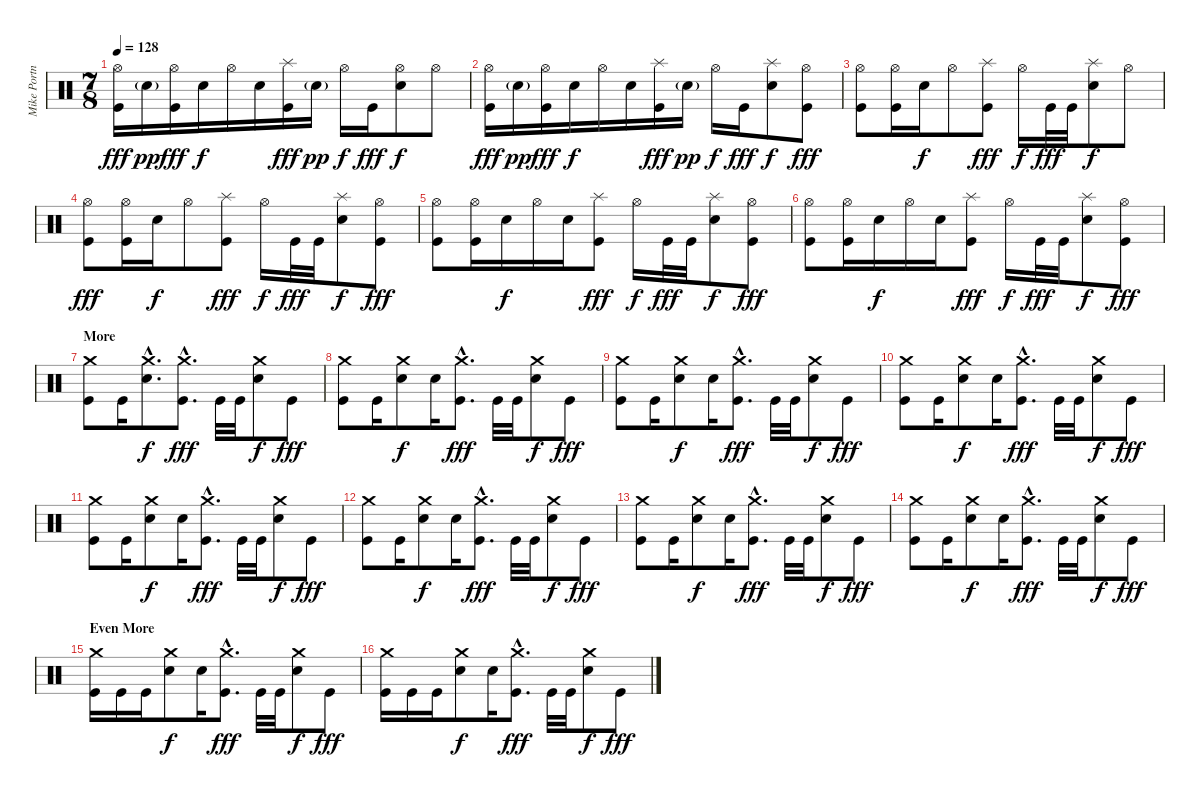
\track ("Mike Portnoy" "Mike Portn") {instrument percussion}
\staff {score}
\articulation defaults
\ts (7 8)
\tempo 128
\clef neutral
\ks c
("Hi-Hat (open)" "Kick (hit)").16{dy fff} "Electric Snare (hit)"{g}.16{dy pp} ("Hi-Hat (open)" "Kick (hit)").16{dy fff} "Electric Snare (hit)".16{dy f} "Hi-Hat (open)".16 "Electric Snare (hit)".16 ("Splash (hit)" "Kick (hit)").16{dy fff} "Electric Snare (hit)"{g}.16{dy pp} "Hi-Hat (open)".16{dy f} "Kick (hit)".16{dy fff} ("Hi-Hat (open)" "Electric Snare (hit)").8{dy f} "Hi-Hat (open)".8 |
("Hi-Hat (open)" "Kick (hit)").16{dy fff} "Electric Snare (hit)"{g}.16{dy pp} ("Hi-Hat (open)" "Kick (hit)").16{dy fff} "Electric Snare (hit)".16{dy f} "Hi-Hat (open)".16 "Electric Snare (hit)".16 ("Splash (hit)" "Kick (hit)").16{dy fff} "Electric Snare (hit)"{g}.16{dy pp} "Hi-Hat (open)".16{dy f} "Kick (hit)".16{dy fff} ("Splash (hit)" "Electric Snare (hit)").8{dy f} ("Hi-Hat (open)" "Kick (hit)").8{dy fff} |
("Hi-Hat (open)" "Kick (hit)").8 ("Hi-Hat (open)" "Kick (hit)").16 "Electric Snare (hit)".16{dy f} "Hi-Hat (open)".8 ("Splash (hit)" "Kick (hit)").8{dy fff} "Hi-Hat (open)".16{dy f} "Kick (hit)".32{dy fff} "Kick (hit)".32 ("Splash (hit)" "Electric Snare (hit)").8{dy f} "Hi-Hat (open)".8 |
("Hi-Hat (open)" "Kick (hit)").8{dy fff} ("Hi-Hat (open)" "Kick (hit)").16 "Electric Snare (hit)".16{dy f} "Hi-Hat (open)".8 ("Splash (hit)" "Kick (hit)").8{dy fff} "Hi-Hat (open)".16{dy f} "Kick (hit)".32{dy fff} "Kick (hit)".32 ("Splash (hit)" "Electric Snare (hit)").8{dy f} ("Hi-Hat (open)" "Kick (hit)").8{dy fff} |
("Hi-Hat (open)" "Kick (hit)").8 ("Hi-Hat (open)" "Kick (hit)").16 "Electric Snare (hit)".16{dy f} "Hi-Hat (open)".16 "Electric Snare (hit)".16 ("Splash (hit)" "Kick (hit)").8{dy fff} "Hi-Hat (open)".16{dy f} "Kick (hit)".32{dy fff} "Kick (hit)".32 ("Splash (hit)" "Electric Snare (hit)").8{dy f} ("Hi-Hat (open)" "Kick (hit)").8{dy fff} |
("Hi-Hat (open)" "Kick (hit)").8 ("Hi-Hat (open)" "Kick (hit)").16 "Electric Snare (hit)".16{dy f} "Hi-Hat (open)".16 "Electric Snare (hit)".16 ("Splash (hit)" "Kick (hit)").8{dy fff} "Hi-Hat (open)".16{dy f} "Kick (hit)".32{dy fff} "Kick (hit)".32 ("Splash (hit)" "Electric Snare (hit)").8{dy f} ("Hi-Hat (open)" "Kick (hit)").8{dy fff} |
\section ("" "More")
("Crash medium (hit)" "Kick (hit)").8 "Kick (hit)".16 ("Crash medium (hit)"{hac} "Electric Snare (hit)"{hac}).8{d dy f} ("Crash medium (hit)"{hac} "Kick (hit)"{hac}).8{d dy fff} "Kick (hit)".32 "Kick (hit)".32 ("Crash medium (hit)" "Electric Snare (hit)").8{dy f} "Kick (hit)".8{dy fff} |
("Crash medium (hit)" "Kick (hit)").8 "Kick (hit)".16 ("Crash medium (hit)" "Electric Snare (hit)").8{dy f} "Electric Snare (hit)".16 ("Crash medium (hit)"{hac} "Kick (hit)"{hac}).8{d dy fff} "Kick (hit)".32 "Kick (hit)".32 ("Crash medium (hit)" "Electric Snare (hit)").8{dy f} "Kick (hit)".8{dy fff} |
("Crash medium (hit)" "Kick (hit)").8 "Kick (hit)".16 ("Crash medium (hit)" "Electric Snare (hit)").8{dy f} "Electric Snare (hit)".16 ("Crash medium (hit)"{hac} "Kick (hit)"{hac}).8{d dy fff} "Kick (hit)".32 "Kick (hit)".32 ("Crash medium (hit)" "Electric Snare (hit)").8{dy f} "Kick (hit)".8{dy fff} |
("Crash medium (hit)" "Kick (hit)").8 "Kick (hit)".16 ("Crash medium (hit)" "Electric Snare (hit)").8{dy f} "Electric Snare (hit)".16 ("Crash medium (hit)"{hac} "Kick (hit)"{hac}).8{d dy fff} "Kick (hit)".32 "Kick (hit)".32 ("Crash medium (hit)" "Electric Snare (hit)").8{dy f} "Kick (hit)".8{dy fff} |
("Crash medium (hit)" "Kick (hit)").8 "Kick (hit)".16 ("Crash medium (hit)" "Electric Snare (hit)").8{dy f} "Electric Snare (hit)".16 ("Crash medium (hit)"{hac} "Kick (hit)"{hac}).8{d dy fff} "Kick (hit)".32 "Kick (hit)".32 ("Crash medium (hit)" "Electric Snare (hit)").8{dy f} "Kick (hit)".8{dy fff} |
("Crash medium (hit)" "Kick (hit)").8 "Kick (hit)".16 ("Crash medium (hit)" "Electric Snare (hit)").8{dy f} "Electric Snare (hit)".16 ("Crash medium (hit)"{hac} "Kick (hit)"{hac}).8{d dy fff} "Kick (hit)".32 "Kick (hit)".32 ("Crash medium (hit)" "Electric Snare (hit)").8{dy f} "Kick (hit)".8{dy fff} |
("Crash medium (hit)" "Kick (hit)").8 "Kick (hit)".16 ("Crash medium (hit)" "Electric Snare (hit)").8{dy f} "Electric Snare (hit)".16 ("Crash medium (hit)"{hac} "Kick (hit)"{hac}).8{d dy fff} "Kick (hit)".32 "Kick (hit)".32 ("Crash medium (hit)" "Electric Snare (hit)").8{dy f} "Kick (hit)".8{dy fff} |
("Crash medium (hit)" "Kick (hit)").8 "Kick (hit)".16 ("Crash medium (hit)" "Electric Snare (hit)").8{dy f} "Electric Snare (hit)".16 ("Crash medium (hit)"{hac} "Kick (hit)"{hac}).8{d dy fff} "Kick (hit)".32 "Kick (hit)".32 ("Crash medium (hit)" "Electric Snare (hit)").8{dy f} "Kick (hit)".8{dy fff} |
\section ("" "Even More")
("Crash medium (hit)" "Kick (hit)").16 "Kick (hit)".16 "Kick (hit)".16 ("Crash medium (hit)" "Electric Snare (hit)").8{dy f} "Electric Snare (hit)".16 ("Crash medium (hit)"{hac} "Kick (hit)"{hac}).8{d dy fff} "Kick (hit)".32 "Kick (hit)".32 ("Crash medium (hit)" "Electric Snare (hit)").8{dy f} "Kick (hit)".8{dy fff} |
("Crash medium (hit)" "Kick (hit)").16 "Kick (hit)".16 "Kick (hit)".16 ("Crash medium (hit)" "Electric Snare (hit)").8{dy f} "Electric Snare (hit)".16 ("Crash medium (hit)"{hac} "Kick (hit)"{hac}).8{d dy fff} "Kick (hit)".32 "Kick (hit)".32 ("Crash medium (hit)" "Electric Snare (hit)").8{dy f} "Kick (hit)".8{dy fff}
